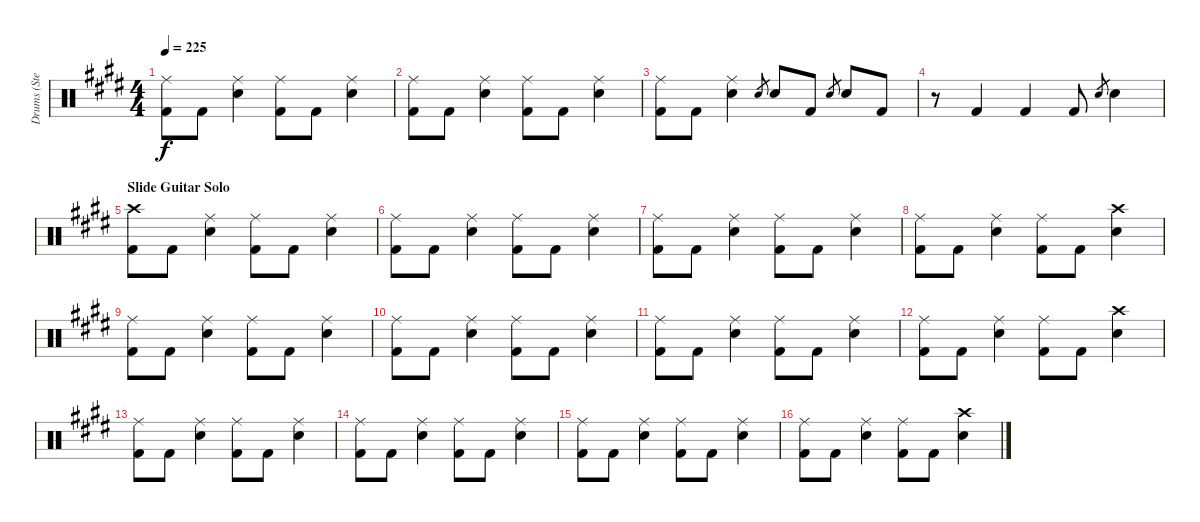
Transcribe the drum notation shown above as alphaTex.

\track ("Drums (Steven)" "Drums (Ste") {instrument percussion}
\staff {score}
\articulation defaults
\ts (4 4)
\tempo 225
\clef neutral
\ks e
("Ride (middle)" "Kick (hit) 2").8{dy f} "Kick (hit) 2".8 ("Ride (middle)" "Snare (hit) 2").4 ("Ride (middle)" "Kick (hit) 2").8 "Kick (hit) 2".8 ("Ride (middle)" "Snare (hit) 2").4 |
("Ride (middle)" "Kick (hit) 2").8 "Kick (hit) 2".8 ("Ride (middle)" "Snare (hit) 2").4 ("Ride (middle)" "Kick (hit) 2").8 "Kick (hit) 2".8 ("Ride (middle)" "Snare (hit) 2").4 |
("Ride (middle)" "Kick (hit) 2").8 "Kick (hit) 2".8 ("Ride (middle)" "Snare (hit) 2").4 "Snare (hit) 2".8{gr} "Snare (hit) 2".8 "Kick (hit) 2".8 "Snare (hit) 2".8{gr} "Snare (hit) 2".8 "Kick (hit) 2".8 |
r.8 "Kick (hit) 2".4 "Kick (hit) 2".4 "Kick (hit) 2".8 "Snare (hit) 2".8{gr} "Snare (hit) 2".4 |
\section ("" "Slide Guitar Solo")
("Crash high (hit)" "Kick (hit) 2").8 "Kick (hit) 2".8 ("Ride (middle)" "Snare (hit) 2").4 ("Ride (middle)" "Kick (hit) 2").8 "Kick (hit) 2".8 ("Ride (middle)" "Snare (hit) 2").4 |
("Ride (middle)" "Kick (hit) 2").8 "Kick (hit) 2".8 ("Ride (middle)" "Snare (hit) 2").4 ("Ride (middle)" "Kick (hit) 2").8 "Kick (hit) 2".8 ("Ride (middle)" "Snare (hit) 2").4 |
("Ride (middle)" "Kick (hit) 2").8 "Kick (hit) 2".8 ("Ride (middle)" "Snare (hit) 2").4 ("Ride (middle)" "Kick (hit) 2").8 "Kick (hit) 2".8 ("Ride (middle)" "Snare (hit) 2").4 |
("Ride (middle)" "Kick (hit) 2").8 "Kick (hit) 2".8 ("Ride (middle)" "Snare (hit) 2").4 ("Ride (middle)" "Kick (hit) 2").8 "Kick (hit) 2".8 ("Crash high (hit)" "Snare (hit) 2").4 |
("Ride (middle)" "Kick (hit) 2").8 "Kick (hit) 2".8 ("Ride (middle)" "Snare (hit) 2").4 ("Ride (middle)" "Kick (hit) 2").8 "Kick (hit) 2".8 ("Ride (middle)" "Snare (hit) 2").4 |
("Ride (middle)" "Kick (hit) 2").8 "Kick (hit) 2".8 ("Ride (middle)" "Snare (hit) 2").4 ("Ride (middle)" "Kick (hit) 2").8 "Kick (hit) 2".8 ("Ride (middle)" "Snare (hit) 2").4 |
("Ride (middle)" "Kick (hit) 2").8 "Kick (hit) 2".8 ("Ride (middle)" "Snare (hit) 2").4 ("Ride (middle)" "Kick (hit) 2").8 "Kick (hit) 2".8 ("Ride (middle)" "Snare (hit) 2").4 |
("Ride (middle)" "Kick (hit) 2").8 "Kick (hit) 2".8 ("Ride (middle)" "Snare (hit) 2").4 ("Ride (middle)" "Kick (hit) 2").8 "Kick (hit) 2".8 ("Crash high (hit)" "Snare (hit) 2").4 |
("Ride (middle)" "Kick (hit) 2").8 "Kick (hit) 2".8 ("Ride (middle)" "Snare (hit) 2").4 ("Ride (middle)" "Kick (hit) 2").8 "Kick (hit) 2".8 ("Ride (middle)" "Snare (hit) 2").4 |
("Ride (middle)" "Kick (hit) 2").8 "Kick (hit) 2".8 ("Ride (middle)" "Snare (hit) 2").4 ("Ride (middle)" "Kick (hit) 2").8 "Kick (hit) 2".8 ("Ride (middle)" "Snare (hit) 2").4 |
("Ride (middle)" "Kick (hit) 2").8 "Kick (hit) 2".8 ("Ride (middle)" "Snare (hit) 2").4 ("Ride (middle)" "Kick (hit) 2").8 "Kick (hit) 2".8 ("Ride (middle)" "Snare (hit) 2").4 |
("Ride (middle)" "Kick (hit) 2").8 "Kick (hit) 2".8 ("Ride (middle)" "Snare (hit) 2").4 ("Ride (middle)" "Kick (hit) 2").8 "Kick (hit) 2".8 ("Crash high (hit)" "Snare (hit) 2").4
